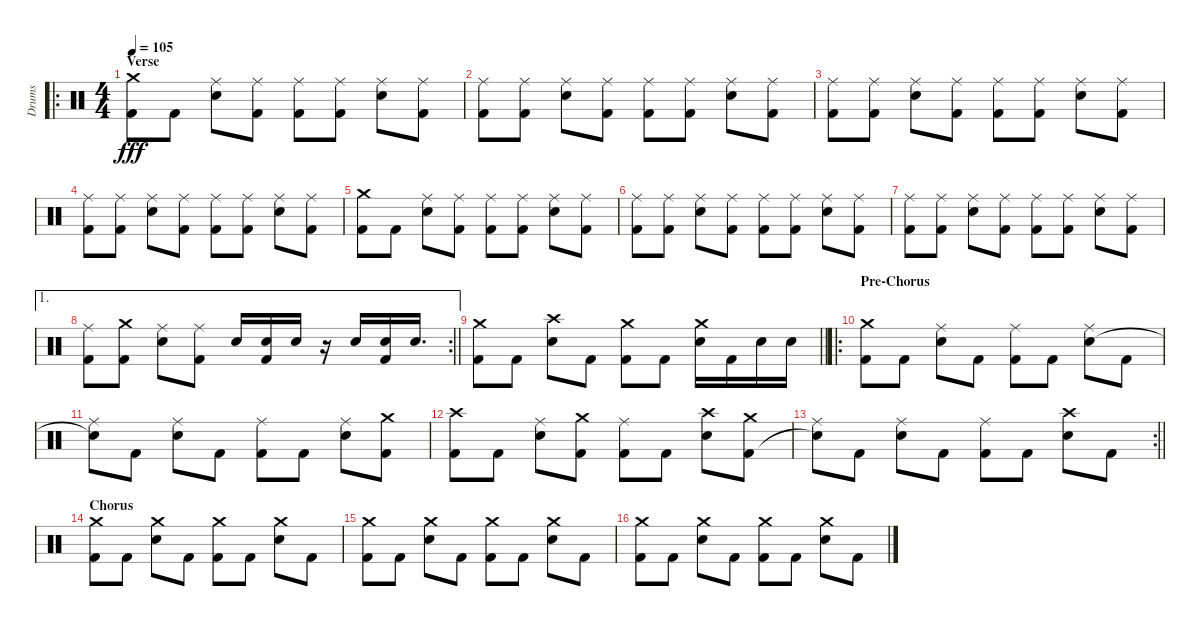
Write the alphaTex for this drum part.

\track ("Drums" "Drums") {instrument percussion}
\staff {score}
\articulation defaults
\ro
\ts (4 4)
\section ("" "Verse")
\tempo 105
\clef neutral
\ks c
("Crash medium (hit)" "Kick (hit) 2").8{dy fff} "Kick (hit) 2".8 ("Ride (middle)" "Electric Snare (hit)").8 ("Ride (middle)" "Kick (hit) 2").8 ("Ride (middle)" "Kick (hit) 2").8 ("Ride (middle)" "Kick (hit) 2").8 ("Ride (middle)" "Electric Snare (hit)").8 ("Ride (middle)" "Kick (hit) 2").8 |
("Ride (middle)" "Kick (hit) 2").8 ("Ride (middle)" "Kick (hit) 2").8 ("Ride (middle)" "Electric Snare (hit)").8 ("Ride (middle)" "Kick (hit) 2").8 ("Ride (middle)" "Kick (hit) 2").8 ("Ride (middle)" "Kick (hit) 2").8 ("Ride (middle)" "Electric Snare (hit)").8 ("Ride (middle)" "Kick (hit) 2").8 |
("Ride (middle)" "Kick (hit) 2").8 ("Ride (middle)" "Kick (hit) 2").8 ("Ride (middle)" "Electric Snare (hit)").8 ("Ride (middle)" "Kick (hit) 2").8 ("Ride (middle)" "Kick (hit) 2").8 ("Ride (middle)" "Kick (hit) 2").8 ("Ride (middle)" "Electric Snare (hit)").8 ("Ride (middle)" "Kick (hit) 2").8 |
("Ride (middle)" "Kick (hit) 2").8 ("Ride (middle)" "Kick (hit) 2").8 ("Ride (middle)" "Electric Snare (hit)").8 ("Ride (middle)" "Kick (hit) 2").8 ("Ride (middle)" "Kick (hit) 2").8 ("Ride (middle)" "Kick (hit) 2").8 ("Ride (middle)" "Electric Snare (hit)").8 ("Ride (middle)" "Kick (hit) 2").8 |
("Crash medium (hit)" "Kick (hit) 2").8 "Kick (hit) 2".8 ("Ride (middle)" "Electric Snare (hit)").8 ("Ride (middle)" "Kick (hit) 2").8 ("Ride (middle)" "Kick (hit) 2").8 ("Ride (middle)" "Kick (hit) 2").8 ("Ride (middle)" "Electric Snare (hit)").8 ("Ride (middle)" "Kick (hit) 2").8 |
("Ride (middle)" "Kick (hit) 2").8 ("Ride (middle)" "Kick (hit) 2").8 ("Ride (middle)" "Electric Snare (hit)").8 ("Ride (middle)" "Kick (hit) 2").8 ("Ride (middle)" "Kick (hit) 2").8 ("Ride (middle)" "Kick (hit) 2").8 ("Ride (middle)" "Electric Snare (hit)").8 ("Ride (middle)" "Kick (hit) 2").8 |
("Ride (middle)" "Kick (hit) 2").8 ("Ride (middle)" "Kick (hit) 2").8 ("Ride (middle)" "Electric Snare (hit)").8 ("Ride (middle)" "Kick (hit) 2").8 ("Ride (middle)" "Kick (hit) 2").8 ("Ride (middle)" "Kick (hit) 2").8 ("Ride (middle)" "Electric Snare (hit)").8 ("Ride (middle)" "Kick (hit) 2").8 |
\ae 1
\rc 2
\barLineRight lightlight
("Ride (middle)" "Kick (hit) 2").8 ("Crash medium (hit)" "Kick (hit) 2").8 ("Ride (middle)" "Electric Snare (hit)").8 ("Ride (middle)" "Kick (hit) 2").8 "Electric Snare (hit)".16 ("Electric Snare (hit)" "Kick (hit) 2").16 "Electric Snare (hit)".16 r.16 "Electric Snare (hit)".16 ("Electric Snare (hit)" "Kick (hit) 2").16 "Electric Snare (hit)".16{d} |
\barLineRight lightlight
("Crash medium (hit)" "Kick (hit) 2").8 "Kick (hit) 2".8 ("Crash high (hit)" "Electric Snare (hit)").8 "Kick (hit) 2".8 ("Crash medium (hit)" "Kick (hit) 2").8 "Kick (hit) 2".8 ("Crash medium (hit)" "Electric Snare (hit)").16 "Kick (hit) 2".16 "Electric Snare (hit)".16 "Electric Snare (hit)".16 |
\ro
\section ("" "Pre-Chorus")
("Crash medium (hit)" "Kick (hit) 2").8 "Kick (hit) 2".8 ("Ride (middle)" "Electric Snare (hit)").8 "Kick (hit) 2".8 ("Ride (middle)" "Kick (hit) 2").8 "Kick (hit) 2".8 ("Ride (middle)" "Electric Snare (hit)").8 "Kick (hit) 2".8 |
("Ride (middle)" "Snare (hit)"{t}).8 "Kick (hit) 2".8 ("Ride (middle)" "Electric Snare (hit)").8 "Kick (hit) 2".8 ("Ride (middle)" "Kick (hit) 2").8 "Kick (hit) 2".8 ("Ride (middle)" "Electric Snare (hit)").8 ("Crash medium (hit)" "Kick (hit) 2").8 |
("Crash high (hit)" "Kick (hit) 2").8 "Kick (hit) 2".8 ("Ride (middle)" "Electric Snare (hit)").8 ("Crash medium (hit)" "Kick (hit) 2").8 ("Ride (middle)" "Kick (hit) 2").8 "Kick (hit) 2".8 ("Crash high (hit)" "Electric Snare (hit)").8 ("Crash medium (hit)" "Kick (hit) 2").8 |
\rc 2
\barLineRight lightlight
("Ride (middle)" "Snare (hit)"{t}).8 "Kick (hit) 2".8 ("Ride (middle)" "Electric Snare (hit)").8 "Kick (hit) 2".8 ("Ride (middle)" "Kick (hit) 2").8 "Kick (hit) 2".8 ("Crash high (hit)" "Electric Snare (hit)").8 "Kick (hit) 2".8 |
\section ("" "Chorus")
("Crash medium (hit)" "Kick (hit) 2").8 "Kick (hit) 2".8 ("Crash medium (hit)" "Electric Snare (hit)").8 "Kick (hit) 2".8 ("Crash medium (hit)" "Kick (hit) 2").8 "Kick (hit) 2".8 ("Crash medium (hit)" "Electric Snare (hit)").8 "Kick (hit) 2".8 |
("Crash medium (hit)" "Kick (hit) 2").8 "Kick (hit) 2".8 ("Crash medium (hit)" "Electric Snare (hit)").8 "Kick (hit) 2".8 ("Crash medium (hit)" "Kick (hit) 2").8 "Kick (hit) 2".8 ("Crash medium (hit)" "Electric Snare (hit)").8 "Kick (hit) 2".8 |
("Crash medium (hit)" "Kick (hit) 2").8 "Kick (hit) 2".8 ("Crash medium (hit)" "Electric Snare (hit)").8 "Kick (hit) 2".8 ("Crash medium (hit)" "Kick (hit) 2").8 "Kick (hit) 2".8 ("Crash medium (hit)" "Electric Snare (hit)").8 "Kick (hit) 2".8
